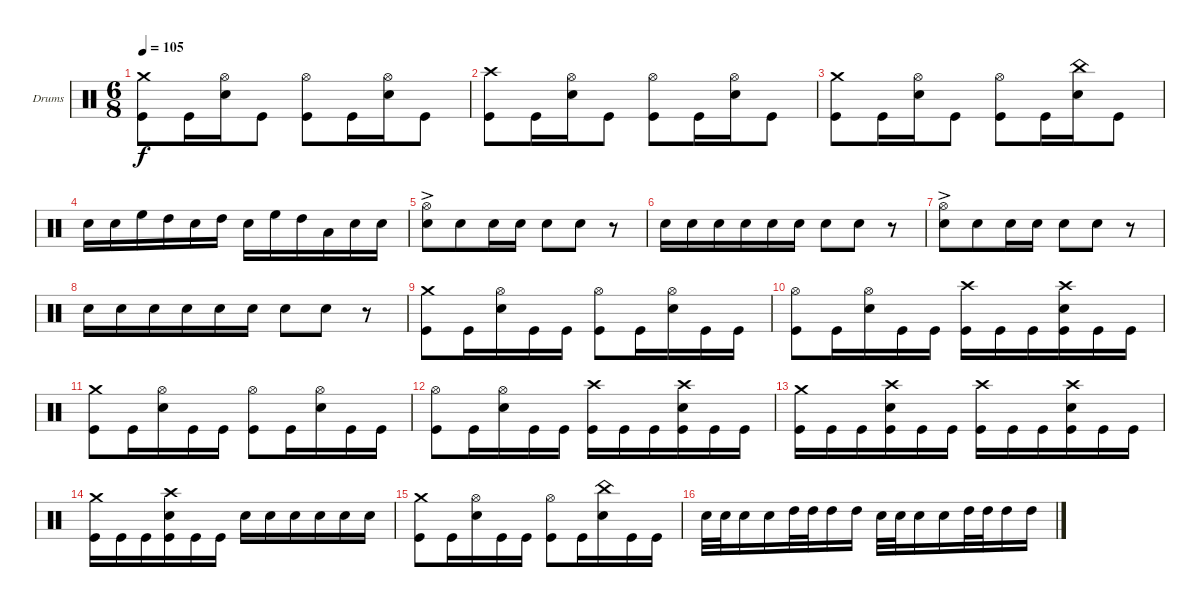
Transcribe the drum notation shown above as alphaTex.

\defaultSystemsLayout 4
\bracketExtendMode groupsimilarinstruments
\firstSystemTrackNameOrientation horizontal
\otherSystemsTrackNameOrientation horizontal
\track ("Stefan Schwarzmann" "Drums") {instrument percussion}
\staff {score}
\articulation defaults
\ts (6 8)
\tempo 105
\clef neutral
\ks c
("Crash medium (hit)" "Kick (hit)").8{dy f} "Kick (hit)".16 ("Hi-Hat (open)" "Snare (hit) 2").16 "Kick (hit)".8 ("Hi-Hat (open)" "Kick (hit)").8 "Kick (hit)".16 ("Hi-Hat (open)" "Snare (hit) 2").16 "Kick (hit)".8 |
("Crash high (hit)" "Kick (hit)").8 "Kick (hit)".16 ("Hi-Hat (open)" "Snare (hit) 2").16 "Kick (hit)".8 ("Hi-Hat (open)" "Kick (hit)").8 "Kick (hit)".16 ("Hi-Hat (open)" "Snare (hit) 2").16 "Kick (hit)".8 |
("Crash medium (hit)" "Kick (hit)").8 "Kick (hit)".16 ("Hi-Hat (open)" "Snare (hit) 2").16 "Kick (hit)".8 ("Hi-Hat (open)" "Kick (hit)").8 "Kick (hit)".16 ("China (hit)" "Snare (hit) 2").16 "Kick (hit)".8 |
"Snare (hit) 2".16 "Snare (hit) 2".16 "High Floor Tom (hit)".16 "High Tom (hit)".16 "Snare (hit) 2".16 "High Tom (hit)".16 "Snare (hit) 2".16 "High Floor Tom (hit)".16 "High Tom (hit)".16 "Low Tom (hit)".16 "Snare (hit) 2".16 "Snare (hit) 2".16 |
("Hi-Hat (open)"{ac} "Snare (hit) 2").8 "Snare (hit) 2".8 "Snare (hit) 2".16 "Snare (hit) 2".16 "Snare (hit) 2".8 "Snare (hit) 2".8 r.8 |
"Snare (hit) 2".16 "Snare (hit) 2".16 "Snare (hit) 2".16 "Snare (hit) 2".16 "Snare (hit) 2".16 "Snare (hit) 2".16 "Snare (hit) 2".8 "Snare (hit) 2".8 r.8 |
("Hi-Hat (open)"{ac} "Snare (hit) 2").8 "Snare (hit) 2".8 "Snare (hit) 2".16 "Snare (hit) 2".16 "Snare (hit) 2".8 "Snare (hit) 2".8 r.8 |
"Snare (hit) 2".16 "Snare (hit) 2".16 "Snare (hit) 2".16 "Snare (hit) 2".16 "Snare (hit) 2".16 "Snare (hit) 2".16 "Snare (hit) 2".8 "Snare (hit) 2".8 r.8 |
("Crash medium (hit)" "Kick (hit)").8 "Kick (hit)".16 ("Hi-Hat (open)" "Snare (hit) 2").16 "Kick (hit)".16 "Kick (hit)".16 ("Hi-Hat (open)" "Kick (hit)").8 "Kick (hit)".16 ("Hi-Hat (open)" "Snare (hit) 2").16 "Kick (hit)".16 "Kick (hit)".16 |
("Hi-Hat (open)" "Kick (hit)").8 "Kick (hit)".16 ("Hi-Hat (open)" "Snare (hit) 2").16 "Kick (hit)".16 "Kick (hit)".16 ("Crash high (hit)" "Kick (hit)").16 "Kick (hit)".16 "Kick (hit)".16 ("Crash high (hit)" "Snare (hit) 2" "Kick (hit)").16 "Kick (hit)".16 "Kick (hit)".16 |
("Crash medium (hit)" "Kick (hit)").8 "Kick (hit)".16 ("Hi-Hat (open)" "Snare (hit) 2").16 "Kick (hit)".16 "Kick (hit)".16 ("Hi-Hat (open)" "Kick (hit)").8 "Kick (hit)".16 ("Hi-Hat (open)" "Snare (hit) 2").16 "Kick (hit)".16 "Kick (hit)".16 |
("Hi-Hat (open)" "Kick (hit)").8 "Kick (hit)".16 ("Hi-Hat (open)" "Snare (hit) 2").16 "Kick (hit)".16 "Kick (hit)".16 ("Crash high (hit)" "Kick (hit)").16 "Kick (hit)".16 "Kick (hit)".16 ("Crash high (hit)" "Snare (hit) 2" "Kick (hit)").16 "Kick (hit)".16 "Kick (hit)".16 |
("Crash medium (hit)" "Kick (hit)").16 "Kick (hit)".16 "Kick (hit)".16 ("Crash high (hit)" "Snare (hit) 2" "Kick (hit)").16 "Kick (hit)".16 "Kick (hit)".16 ("Crash high (hit)" "Kick (hit)").16 "Kick (hit)".16 "Kick (hit)".16 ("Crash high (hit)" "Snare (hit) 2" "Kick (hit)").16 "Kick (hit)".16 "Kick (hit)".16 |
("Crash medium (hit)" "Kick (hit)").16 "Kick (hit)".16 "Kick (hit)".16 ("Crash high (hit)" "Snare (hit) 2" "Kick (hit)").16 "Kick (hit)".16 "Kick (hit)".16 "Snare (hit) 2".16 "Snare (hit) 2".16 "Snare (hit) 2".16 "Snare (hit) 2".16 "Snare (hit) 2".16 "Snare (hit) 2".16 |
("Crash medium (hit)" "Kick (hit)").8 "Kick (hit)".16 ("Hi-Hat (open)" "Snare (hit) 2").16 "Kick (hit)".16 "Kick (hit)".16 ("Hi-Hat (open)" "Kick (hit)").8 "Kick (hit)".16 ("China (hit)" "Snare (hit) 2").16 "Kick (hit)".16 "Kick (hit)".16 |
"Snare (hit) 2".32 "Snare (hit) 2".32 "Snare (hit) 2".16 "Snare (hit) 2".16 "High Tom (hit)".32 "High Tom (hit)".32 "High Tom (hit)".16 "High Tom (hit)".16 "Snare (hit) 2".32 "Snare (hit) 2".32 "Snare (hit) 2".16 "Snare (hit) 2".16 "High Tom (hit)".32 "High Tom (hit)".32 "High Tom (hit)".16 "High Tom (hit)".16
